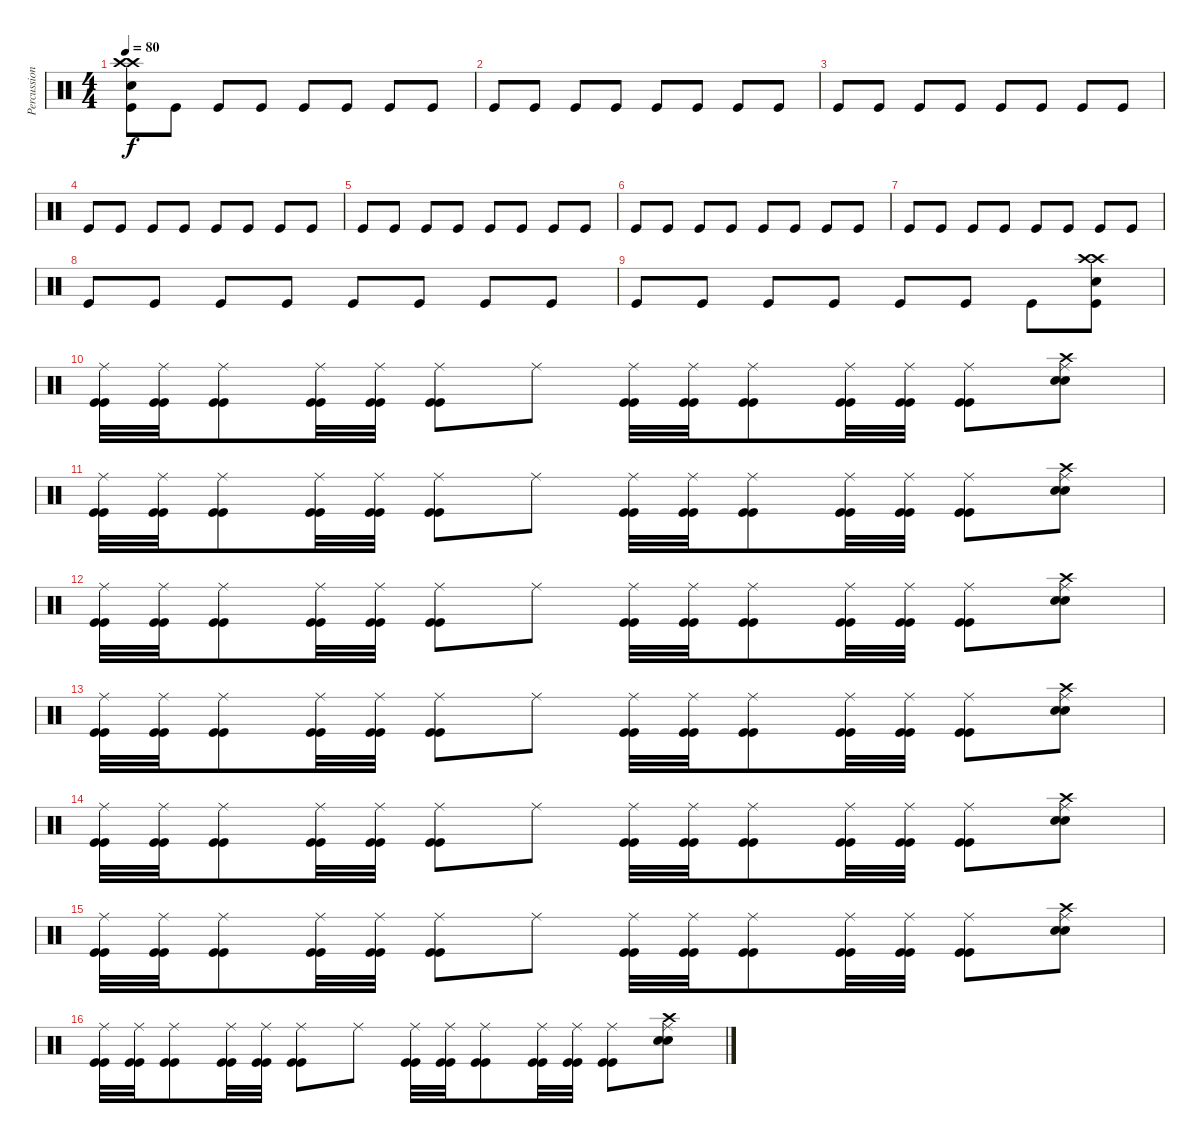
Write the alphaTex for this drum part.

\track ("Percussion" "Percussion") {instrument percussion}
\staff {score}
\articulation defaults
\ts (4 4)
\tempo 80
\clef neutral
\ks c
("Crash high (hit)" "Crash high (hit)" "Snare (hit) 2" "Kick (hit)").8{dy f} "Kick (hit)".8 "Kick (hit)".8 "Kick (hit)".8 "Kick (hit)".8 "Kick (hit)".8 "Kick (hit)".8 "Kick (hit)".8 |
"Kick (hit)".8 "Kick (hit)".8 "Kick (hit)".8 "Kick (hit)".8 "Kick (hit)".8 "Kick (hit)".8 "Kick (hit)".8 "Kick (hit)".8 |
"Kick (hit)".8 "Kick (hit)".8 "Kick (hit)".8 "Kick (hit)".8 "Kick (hit)".8 "Kick (hit)".8 "Kick (hit)".8 "Kick (hit)".8 |
"Kick (hit)".8 "Kick (hit)".8 "Kick (hit)".8 "Kick (hit)".8 "Kick (hit)".8 "Kick (hit)".8 "Kick (hit)".8 "Kick (hit)".8 |
"Kick (hit)".8 "Kick (hit)".8 "Kick (hit)".8 "Kick (hit)".8 "Kick (hit)".8 "Kick (hit)".8 "Kick (hit)".8 "Kick (hit)".8 |
"Kick (hit)".8 "Kick (hit)".8 "Kick (hit)".8 "Kick (hit)".8 "Kick (hit)".8 "Kick (hit)".8 "Kick (hit)".8 "Kick (hit)".8 |
"Kick (hit)".8 "Kick (hit)".8 "Kick (hit)".8 "Kick (hit)".8 "Kick (hit)".8 "Kick (hit)".8 "Kick (hit)".8 "Kick (hit)".8 |
"Kick (hit)".8 "Kick (hit)".8 "Kick (hit)".8 "Kick (hit)".8 "Kick (hit)".8 "Kick (hit)".8 "Kick (hit)".8 "Kick (hit)".8 |
"Kick (hit)".8 "Kick (hit)".8 "Kick (hit)".8 "Kick (hit)".8 "Kick (hit)".8 "Kick (hit)".8 "Kick (hit)".8 ("Crash high (hit)" "Crash high (hit)" "Snare (hit) 2" "Kick (hit)").8 |
("Ride (middle)" "Kick (hit)" "Kick (hit)").32 ("Ride (middle)" "Kick (hit)" "Kick (hit)").32 ("Ride (middle)" "Kick (hit)" "Kick (hit)").8 ("Ride (middle)" "Kick (hit)" "Kick (hit)").32 ("Ride (middle)" "Kick (hit)" "Kick (hit)").32 ("Ride (middle)" "Kick (hit)" "Kick (hit)").8 "Ride (middle)".8 ("Ride (middle)" "Kick (hit)" "Kick (hit)").32 ("Ride (middle)" "Kick (hit)" "Kick (hit)").32 ("Ride (middle)" "Kick (hit)" "Kick (hit)").8 ("Ride (middle)" "Kick (hit)" "Kick (hit)").32 ("Ride (middle)" "Kick (hit)" "Kick (hit)").32 ("Ride (middle)" "Kick (hit)" "Kick (hit)").8 ("Ride (middle)" "Snare (hit) 2" "Crash high (hit)" "Snare (hit) 2").8 |
("Ride (middle)" "Kick (hit)" "Kick (hit)").32 ("Ride (middle)" "Kick (hit)" "Kick (hit)").32 ("Ride (middle)" "Kick (hit)" "Kick (hit)").8 ("Ride (middle)" "Kick (hit)" "Kick (hit)").32 ("Ride (middle)" "Kick (hit)" "Kick (hit)").32 ("Ride (middle)" "Kick (hit)" "Kick (hit)").8 "Ride (middle)".8 ("Ride (middle)" "Kick (hit)" "Kick (hit)").32 ("Ride (middle)" "Kick (hit)" "Kick (hit)").32 ("Ride (middle)" "Kick (hit)" "Kick (hit)").8 ("Ride (middle)" "Kick (hit)" "Kick (hit)").32 ("Ride (middle)" "Kick (hit)" "Kick (hit)").32 ("Ride (middle)" "Kick (hit)" "Kick (hit)").8 ("Ride (middle)" "Snare (hit) 2" "Crash high (hit)" "Snare (hit) 2").8 |
("Ride (middle)" "Kick (hit)" "Kick (hit)").32 ("Ride (middle)" "Kick (hit)" "Kick (hit)").32 ("Ride (middle)" "Kick (hit)" "Kick (hit)").8 ("Ride (middle)" "Kick (hit)" "Kick (hit)").32 ("Ride (middle)" "Kick (hit)" "Kick (hit)").32 ("Ride (middle)" "Kick (hit)" "Kick (hit)").8 "Ride (middle)".8 ("Ride (middle)" "Kick (hit)" "Kick (hit)").32 ("Ride (middle)" "Kick (hit)" "Kick (hit)").32 ("Ride (middle)" "Kick (hit)" "Kick (hit)").8 ("Ride (middle)" "Kick (hit)" "Kick (hit)").32 ("Ride (middle)" "Kick (hit)" "Kick (hit)").32 ("Ride (middle)" "Kick (hit)" "Kick (hit)").8 ("Ride (middle)" "Snare (hit) 2" "Crash high (hit)" "Snare (hit) 2").8 |
("Ride (middle)" "Kick (hit)" "Kick (hit)").32 ("Ride (middle)" "Kick (hit)" "Kick (hit)").32 ("Ride (middle)" "Kick (hit)" "Kick (hit)").8 ("Ride (middle)" "Kick (hit)" "Kick (hit)").32 ("Ride (middle)" "Kick (hit)" "Kick (hit)").32 ("Ride (middle)" "Kick (hit)" "Kick (hit)").8 "Ride (middle)".8 ("Ride (middle)" "Kick (hit)" "Kick (hit)").32 ("Ride (middle)" "Kick (hit)" "Kick (hit)").32 ("Ride (middle)" "Kick (hit)" "Kick (hit)").8 ("Ride (middle)" "Kick (hit)" "Kick (hit)").32 ("Ride (middle)" "Kick (hit)" "Kick (hit)").32 ("Ride (middle)" "Kick (hit)" "Kick (hit)").8 ("Ride (middle)" "Snare (hit) 2" "Crash high (hit)" "Snare (hit) 2").8 |
("Ride (middle)" "Kick (hit)" "Kick (hit)").32 ("Ride (middle)" "Kick (hit)" "Kick (hit)").32 ("Ride (middle)" "Kick (hit)" "Kick (hit)").8 ("Ride (middle)" "Kick (hit)" "Kick (hit)").32 ("Ride (middle)" "Kick (hit)" "Kick (hit)").32 ("Ride (middle)" "Kick (hit)" "Kick (hit)").8 "Ride (middle)".8 ("Ride (middle)" "Kick (hit)" "Kick (hit)").32 ("Ride (middle)" "Kick (hit)" "Kick (hit)").32 ("Ride (middle)" "Kick (hit)" "Kick (hit)").8 ("Ride (middle)" "Kick (hit)" "Kick (hit)").32 ("Ride (middle)" "Kick (hit)" "Kick (hit)").32 ("Ride (middle)" "Kick (hit)" "Kick (hit)").8 ("Ride (middle)" "Snare (hit) 2" "Crash high (hit)" "Snare (hit) 2").8 |
("Ride (middle)" "Kick (hit)" "Kick (hit)").32 ("Ride (middle)" "Kick (hit)" "Kick (hit)").32 ("Ride (middle)" "Kick (hit)" "Kick (hit)").8 ("Ride (middle)" "Kick (hit)" "Kick (hit)").32 ("Ride (middle)" "Kick (hit)" "Kick (hit)").32 ("Ride (middle)" "Kick (hit)" "Kick (hit)").8 "Ride (middle)".8 ("Ride (middle)" "Kick (hit)" "Kick (hit)").32 ("Ride (middle)" "Kick (hit)" "Kick (hit)").32 ("Ride (middle)" "Kick (hit)" "Kick (hit)").8 ("Ride (middle)" "Kick (hit)" "Kick (hit)").32 ("Ride (middle)" "Kick (hit)" "Kick (hit)").32 ("Ride (middle)" "Kick (hit)" "Kick (hit)").8 ("Ride (middle)" "Snare (hit) 2" "Crash high (hit)" "Snare (hit) 2").8 |
("Ride (middle)" "Kick (hit)" "Kick (hit)").32 ("Ride (middle)" "Kick (hit)" "Kick (hit)").32 ("Ride (middle)" "Kick (hit)" "Kick (hit)").8 ("Ride (middle)" "Kick (hit)" "Kick (hit)").32 ("Ride (middle)" "Kick (hit)" "Kick (hit)").32 ("Ride (middle)" "Kick (hit)" "Kick (hit)").8 "Ride (middle)".8 ("Ride (middle)" "Kick (hit)" "Kick (hit)").32 ("Ride (middle)" "Kick (hit)" "Kick (hit)").32 ("Ride (middle)" "Kick (hit)" "Kick (hit)").8 ("Ride (middle)" "Kick (hit)" "Kick (hit)").32 ("Ride (middle)" "Kick (hit)" "Kick (hit)").32 ("Ride (middle)" "Kick (hit)" "Kick (hit)").8 ("Ride (middle)" "Snare (hit) 2" "Crash high (hit)" "Snare (hit) 2").8
